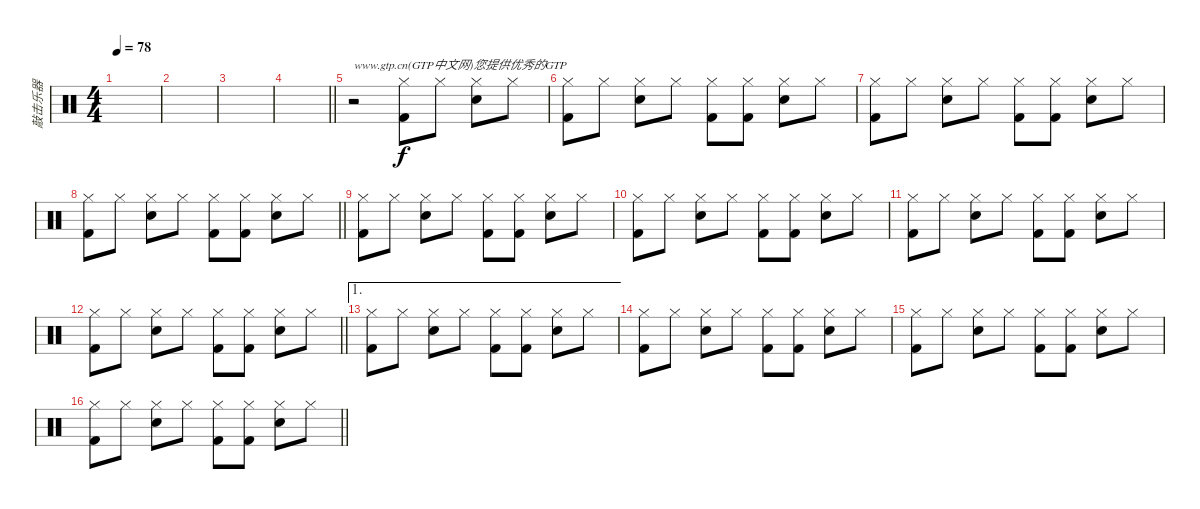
\track ("敲击乐器" "敲击乐器") {instrument percussion}
\staff {score}
\articulation defaults
\ts (4 4)
\tempo 78
\clef neutral
\ks c
|
|
|
\barLineRight lightlight
|
r.2{txt "www.gtp.cn(GTP中文网)您提供优秀的GTP"} ("Hi-Hat (closed)" "Kick (hit) 2").8 "Hi-Hat (closed)".8 ("Hi-Hat (closed)" "Snare (hit) 2").8 "Hi-Hat (closed)".8 |
("Hi-Hat (closed)" "Kick (hit) 2").8 "Hi-Hat (closed)".8 ("Hi-Hat (closed)" "Snare (hit) 2").8 "Hi-Hat (closed)".8 ("Hi-Hat (closed)" "Kick (hit) 2").8 ("Hi-Hat (closed)" "Kick (hit) 2").8 ("Hi-Hat (closed)" "Snare (hit) 2").8 "Hi-Hat (closed)".8 |
("Hi-Hat (closed)" "Kick (hit) 2").8 "Hi-Hat (closed)".8 ("Hi-Hat (closed)" "Snare (hit) 2").8 "Hi-Hat (closed)".8 ("Hi-Hat (closed)" "Kick (hit) 2").8 ("Hi-Hat (closed)" "Kick (hit) 2").8 ("Hi-Hat (closed)" "Snare (hit) 2").8 "Hi-Hat (closed)".8 |
\barLineRight lightlight
("Hi-Hat (closed)" "Kick (hit) 2").8 "Hi-Hat (closed)".8 ("Hi-Hat (closed)" "Snare (hit) 2").8 "Hi-Hat (closed)".8 ("Hi-Hat (closed)" "Kick (hit) 2").8 ("Hi-Hat (closed)" "Kick (hit) 2").8 ("Hi-Hat (closed)" "Snare (hit) 2").8 "Hi-Hat (closed)".8 |
("Hi-Hat (closed)" "Kick (hit) 2").8 "Hi-Hat (closed)".8 ("Hi-Hat (closed)" "Snare (hit) 2").8 "Hi-Hat (closed)".8 ("Hi-Hat (closed)" "Kick (hit) 2").8 ("Hi-Hat (closed)" "Kick (hit) 2").8 ("Hi-Hat (closed)" "Snare (hit) 2").8 "Hi-Hat (closed)".8 |
("Hi-Hat (closed)" "Kick (hit) 2").8 "Hi-Hat (closed)".8 ("Hi-Hat (closed)" "Snare (hit) 2").8 "Hi-Hat (closed)".8 ("Hi-Hat (closed)" "Kick (hit) 2").8 ("Hi-Hat (closed)" "Kick (hit) 2").8 ("Hi-Hat (closed)" "Snare (hit) 2").8 "Hi-Hat (closed)".8 |
("Hi-Hat (closed)" "Kick (hit) 2").8 "Hi-Hat (closed)".8 ("Hi-Hat (closed)" "Snare (hit) 2").8 "Hi-Hat (closed)".8 ("Hi-Hat (closed)" "Kick (hit) 2").8 ("Hi-Hat (closed)" "Kick (hit) 2").8 ("Hi-Hat (closed)" "Snare (hit) 2").8 "Hi-Hat (closed)".8 |
\barLineRight lightlight
("Hi-Hat (closed)" "Kick (hit) 2").8 "Hi-Hat (closed)".8 ("Hi-Hat (closed)" "Snare (hit) 2").8 "Hi-Hat (closed)".8 ("Hi-Hat (closed)" "Kick (hit) 2").8 ("Hi-Hat (closed)" "Kick (hit) 2").8 ("Hi-Hat (closed)" "Snare (hit) 2").8 "Hi-Hat (closed)".8 |
\ae 1
("Hi-Hat (closed)" "Kick (hit) 2").8 "Hi-Hat (closed)".8 ("Hi-Hat (closed)" "Snare (hit) 2").8 "Hi-Hat (closed)".8 ("Hi-Hat (closed)" "Kick (hit) 2").8 ("Hi-Hat (closed)" "Kick (hit) 2").8 ("Hi-Hat (closed)" "Snare (hit) 2").8 "Hi-Hat (closed)".8 |
("Hi-Hat (closed)" "Kick (hit) 2").8 "Hi-Hat (closed)".8 ("Hi-Hat (closed)" "Snare (hit) 2").8 "Hi-Hat (closed)".8 ("Hi-Hat (closed)" "Kick (hit) 2").8 ("Hi-Hat (closed)" "Kick (hit) 2").8 ("Hi-Hat (closed)" "Snare (hit) 2").8 "Hi-Hat (closed)".8 |
("Hi-Hat (closed)" "Kick (hit) 2").8 "Hi-Hat (closed)".8 ("Hi-Hat (closed)" "Snare (hit) 2").8 "Hi-Hat (closed)".8 ("Hi-Hat (closed)" "Kick (hit) 2").8 ("Hi-Hat (closed)" "Kick (hit) 2").8 ("Hi-Hat (closed)" "Snare (hit) 2").8 "Hi-Hat (closed)".8 |
\barLineRight lightlight
("Hi-Hat (closed)" "Kick (hit) 2").8 "Hi-Hat (closed)".8 ("Hi-Hat (closed)" "Snare (hit) 2").8 "Hi-Hat (closed)".8 ("Hi-Hat (closed)" "Kick (hit) 2").8 ("Hi-Hat (closed)" "Kick (hit) 2").8 ("Hi-Hat (closed)" "Snare (hit) 2").8 "Hi-Hat (closed)".8
